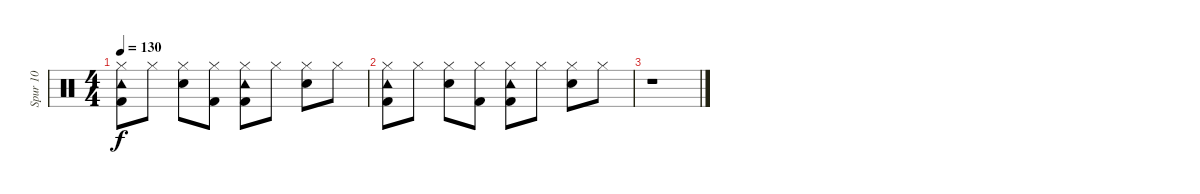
\track ("Spur 10" "Spur 10") {instrument percussion}
\staff {score}
\articulation defaults
\ts (4 4)
\tempo 130
\clef neutral
\ks c
("Tambourine (hit)" "Hi-Hat (closed)" "Kick (hit) 2").8{dy f} "Hi-Hat (closed)".8 ("Hi-Hat (closed)" "Electric Snare (hit)").8 ("Hi-Hat (closed)" "Kick (hit) 2").8 ("Tambourine (hit)" "Hi-Hat (closed)" "Kick (hit) 2").8 "Hi-Hat (closed)".8 ("Hi-Hat (closed)" "Electric Snare (hit)").8 "Hi-Hat (closed)".8 |
("Hi-Hat (closed)" "Tambourine (hit)" "Kick (hit) 2").8 "Hi-Hat (closed)".8 ("Hi-Hat (closed)" "Electric Snare (hit)").8 ("Hi-Hat (closed)" "Kick (hit) 2").8 ("Tambourine (hit)" "Hi-Hat (closed)" "Kick (hit) 2").8 "Hi-Hat (closed)".8 ("Hi-Hat (closed)" "Electric Snare (hit)").8 "Hi-Hat (closed)".8 |
r.1
